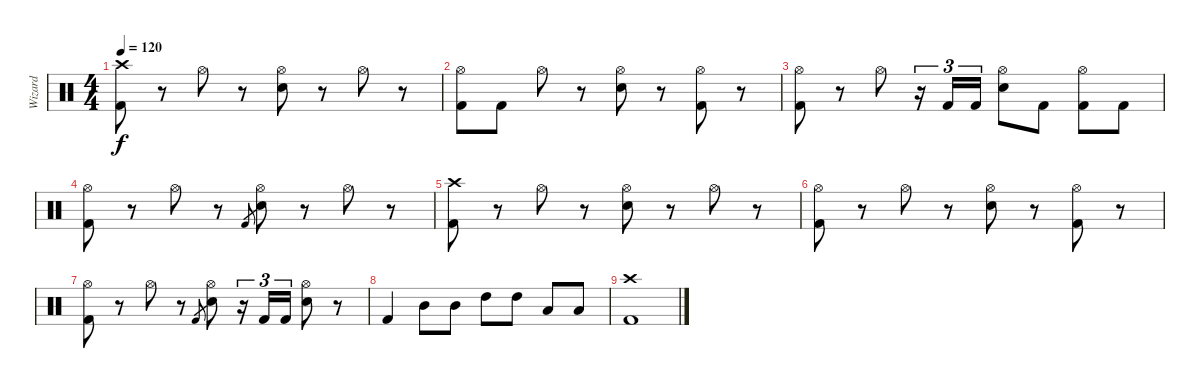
\track ("Wizard" "Wizard") {instrument percussion}
\staff {score}
\articulation defaults
\ts (4 4)
\tempo 120
\clef neutral
\ks c
("Crash high (hit)" "Kick (hit) 2").8{dy f} r.8 "Hi-Hat (open)".8 r.8 ("Hi-Hat (open)" "Snare (hit) 2").8 r.8 "Hi-Hat (open)".8 r.8 |
("Hi-Hat (open)" "Kick (hit) 2").8 "Kick (hit) 2".8 "Hi-Hat (open)".8 r.8 ("Hi-Hat (open)" "Snare (hit) 2").8 r.8 ("Hi-Hat (open)" "Kick (hit) 2").8 r.8 |
("Hi-Hat (open)" "Kick (hit) 2").8 r.8 "Hi-Hat (open)".8 r.16{tu (3 2)} "Kick (hit) 2".16{tu (3 2)} "Kick (hit) 2".16{tu (3 2)} ("Hi-Hat (open)" "Snare (hit) 2").8 "Kick (hit) 2".8 ("Hi-Hat (open)" "Kick (hit) 2").8 "Kick (hit) 2".8 |
("Hi-Hat (open)" "Kick (hit) 2").8 r.8 "Hi-Hat (open)".8 r.8 "Kick (hit) 2".8{gr} ("Hi-Hat (open)" "Snare (hit) 2").8 r.8 "Hi-Hat (open)".8 r.8 |
("Crash high (hit)" "Kick (hit) 2").8 r.8 "Hi-Hat (open)".8 r.8 ("Hi-Hat (open)" "Snare (hit) 2").8 r.8 "Hi-Hat (open)".8 r.8 |
("Hi-Hat (open)" "Kick (hit) 2").8 r.8 "Hi-Hat (open)".8 r.8 ("Hi-Hat (open)" "Snare (hit) 2").8 r.8 ("Hi-Hat (open)" "Kick (hit) 2").8 r.8 |
("Hi-Hat (open)" "Kick (hit) 2").8 r.8 "Hi-Hat (open)".8 r.8 "Kick (hit) 2".8{gr} ("Hi-Hat (open)" "Snare (hit) 2").8 r.16{tu (3 2)} "Kick (hit) 2".16{tu (3 2)} "Kick (hit) 2".16{tu (3 2)} ("Hi-Hat (open)" "Snare (hit) 2").8 r.8 |
"Kick (hit) 2".4 "Mid Tom (hit)".8 "Mid Tom (hit)".8 "High Tom (hit)".8 "High Tom (hit)".8 "Low Tom (hit)".8 "Low Tom (hit)".8 |
("Crash high (hit)" "Kick (hit) 2").1
